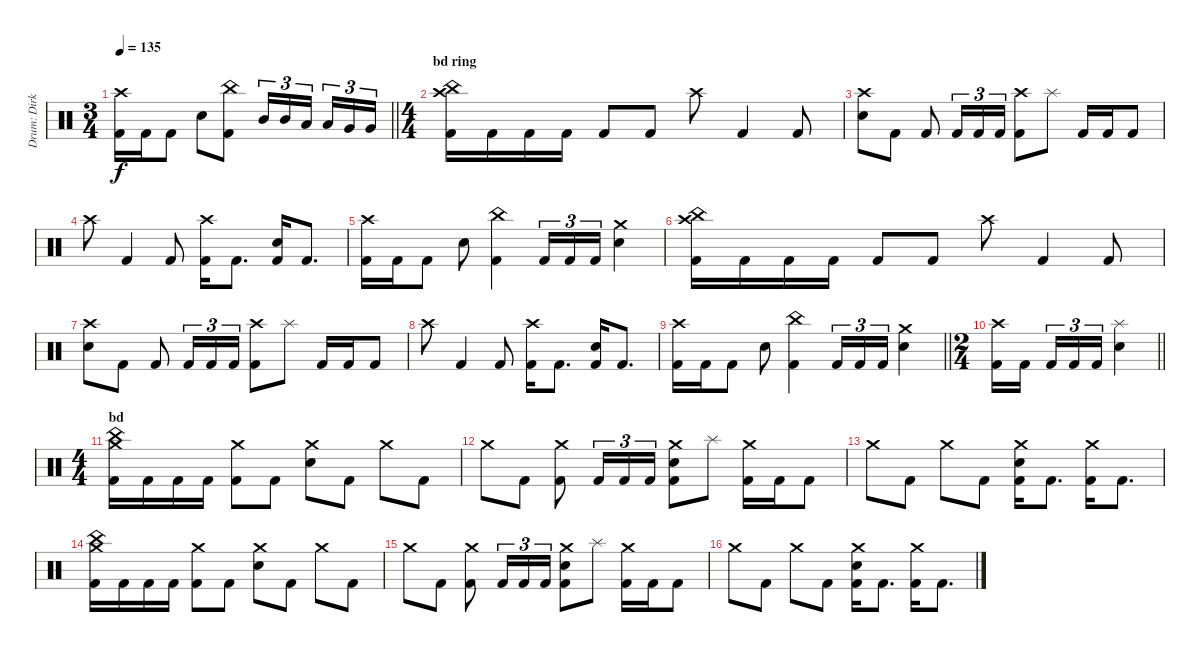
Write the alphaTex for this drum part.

\track ("Drum: Dirk" "Drum: Dirk") {instrument percussion}
\staff {score}
\articulation defaults
\ts (3 4)
\tempo 135
\clef neutral
\barLineRight lightlight
\ks c
("Crash high (hit)" "Kick (hit) 2").16{dy f} "Kick (hit) 2".16 "Kick (hit) 2".8 "Electric Snare (hit)".8 ("China (hit)" "Kick (hit) 2").8 "Mid Tom (hit)".16{tu (3 2)} "Mid Tom (hit)".16{tu (3 2)} "Low Tom (hit)".16{tu (3 2) beam splitsecondary} "Low Tom (hit)".16{tu (3 2)} "Very Low Tom (hit)".16{tu (3 2)} "Very Low Tom (hit)".16{tu (3 2)} |
\ts (4 4)
\section ("" "bd ring")
("China (hit)" "Crash high (hit)" "Kick (hit) 2").16 "Kick (hit) 2".16 "Kick (hit) 2".16 "Kick (hit) 2".16 "Kick (hit) 2".8 "Kick (hit) 2".8 "Crash high (hit)".8 "Kick (hit) 2".4 "Kick (hit) 2".8 |
("Crash high (hit)" "Electric Snare (hit)").8 "Kick (hit) 2".8 "Kick (hit) 2".8 "Kick (hit) 2".16{tu (3 2)} "Kick (hit) 2".16{tu (3 2)} "Kick (hit) 2".16{tu (3 2)} ("Crash high (hit)" "Kick (hit) 2").8 "Splash (hit)".8 "Kick (hit) 2".16 "Kick (hit) 2".16 "Kick (hit) 2".8 |
"Crash high (hit)".8 "Kick (hit) 2".4 "Kick (hit) 2".8 ("Crash high (hit)" "Kick (hit) 2").16 "Kick (hit) 2".8{d} ("Electric Snare (hit)" "Kick (hit) 2").16 "Kick (hit) 2".8{d} |
("Crash high (hit)" "Kick (hit) 2").16 "Kick (hit) 2".16 "Kick (hit) 2".8 "Electric Snare (hit)".8 ("China (hit)" "Kick (hit) 2").4 "Kick (hit) 2".16{tu (3 2)} "Kick (hit) 2".16{tu (3 2)} "Kick (hit) 2".16{tu (3 2)} ("Crash medium (hit)" "Electric Snare (hit)").4 |
("China (hit)" "Crash high (hit)" "Kick (hit) 2").16 "Kick (hit) 2".16 "Kick (hit) 2".16 "Kick (hit) 2".16 "Kick (hit) 2".8 "Kick (hit) 2".8 "Crash high (hit)".8 "Kick (hit) 2".4 "Kick (hit) 2".8 |
("Crash high (hit)" "Electric Snare (hit)").8 "Kick (hit) 2".8 "Kick (hit) 2".8 "Kick (hit) 2".16{tu (3 2)} "Kick (hit) 2".16{tu (3 2)} "Kick (hit) 2".16{tu (3 2)} ("Crash high (hit)" "Kick (hit) 2").8 "Splash (hit)".8 "Kick (hit) 2".16 "Kick (hit) 2".16 "Kick (hit) 2".8 |
"Crash high (hit)".8 "Kick (hit) 2".4 "Kick (hit) 2".8 ("Crash high (hit)" "Kick (hit) 2").16 "Kick (hit) 2".8{d} ("Electric Snare (hit)" "Kick (hit) 2").16 "Kick (hit) 2".8{d} |
\barLineRight lightlight
("Crash high (hit)" "Kick (hit) 2").16 "Kick (hit) 2".16 "Kick (hit) 2".8 "Electric Snare (hit)".8 ("China (hit)" "Kick (hit) 2").4 "Kick (hit) 2".16{tu (3 2)} "Kick (hit) 2".16{tu (3 2)} "Kick (hit) 2".16{tu (3 2)} ("Crash medium (hit)" "Electric Snare (hit)").4 |
\ts (2 4)
\barLineRight lightlight
("Crash high (hit)" "Kick (hit) 2").16 "Kick (hit) 2".16{beam splitsecondary} "Kick (hit) 2".16{tu (3 2)} "Kick (hit) 2".16{tu (3 2)} "Kick (hit) 2".16{tu (3 2)} ("Splash (hit)" "Electric Snare (hit)").4 |
\ts (4 4)
\section ("" "bd")
("China (hit)" "Crash medium (hit)" "Kick (hit) 2").16 "Kick (hit) 2".16 "Kick (hit) 2".16 "Kick (hit) 2".16 ("Crash medium (hit)" "Kick (hit) 2").8 "Kick (hit) 2".8 ("Crash medium (hit)" "Electric Snare (hit)").8 "Kick (hit) 2".8 "Crash medium (hit)".8 "Kick (hit) 2".8 |
"Crash medium (hit)".8 "Kick (hit) 2".8 ("Crash medium (hit)" "Kick (hit) 2").8 "Kick (hit) 2".16{tu (3 2)} "Kick (hit) 2".16{tu (3 2)} "Kick (hit) 2".16{tu (3 2)} ("Crash medium (hit)" "Electric Snare (hit)" "Kick (hit) 2").8 "Splash (hit)".8 ("Crash medium (hit)" "Kick (hit) 2").16 "Kick (hit) 2".16 "Kick (hit) 2".8 |
"Crash medium (hit)".8 "Kick (hit) 2".8 "Crash medium (hit)".8 "Kick (hit) 2".8 ("Crash medium (hit)" "Electric Snare (hit)" "Kick (hit) 2").16 "Kick (hit) 2".8{d} ("Crash medium (hit)" "Kick (hit) 2").16 "Kick (hit) 2".8{d} |
("China (hit)" "Crash medium (hit)" "Kick (hit) 2").16 "Kick (hit) 2".16 "Kick (hit) 2".16 "Kick (hit) 2".16 ("Crash medium (hit)" "Kick (hit) 2").8 "Kick (hit) 2".8 ("Crash medium (hit)" "Electric Snare (hit)").8 "Kick (hit) 2".8 "Crash medium (hit)".8 "Kick (hit) 2".8 |
"Crash medium (hit)".8 "Kick (hit) 2".8 ("Crash medium (hit)" "Kick (hit) 2").8 "Kick (hit) 2".16{tu (3 2)} "Kick (hit) 2".16{tu (3 2)} "Kick (hit) 2".16{tu (3 2)} ("Crash medium (hit)" "Electric Snare (hit)" "Kick (hit) 2").8 "Splash (hit)".8 ("Crash medium (hit)" "Kick (hit) 2").16 "Kick (hit) 2".16 "Kick (hit) 2".8 |
"Crash medium (hit)".8 "Kick (hit) 2".8 "Crash medium (hit)".8 "Kick (hit) 2".8 ("Crash medium (hit)" "Electric Snare (hit)" "Kick (hit) 2").16 "Kick (hit) 2".8{d} ("Crash medium (hit)" "Kick (hit) 2").16 "Kick (hit) 2".8{d}
